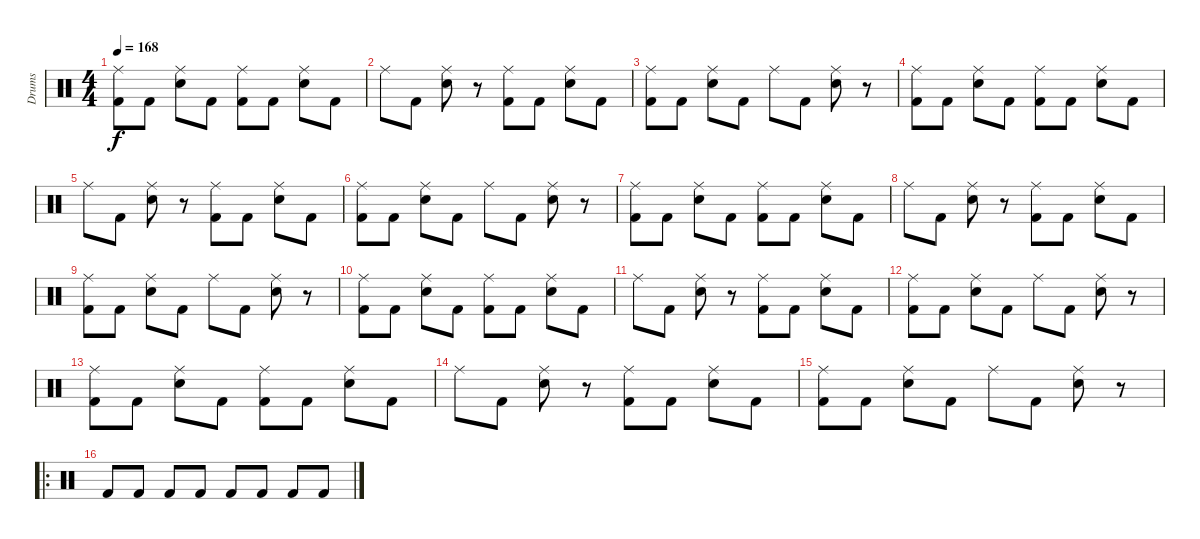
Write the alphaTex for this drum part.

\track ("Drums" "Drums") {instrument percussion}
\staff {score}
\articulation defaults
\ts (4 4)
\tempo 168
\clef neutral
\ks c
("Ride (middle)" "Kick (hit) 2").8{dy f} "Kick (hit) 2".8 ("Ride (middle)" "Snare (hit) 2").8 "Kick (hit) 2".8 ("Ride (middle)" "Kick (hit) 2").8 "Kick (hit) 2".8 ("Ride (middle)" "Snare (hit) 2").8 "Kick (hit) 2".8 |
"Ride (middle)".8 "Kick (hit) 2".8 ("Ride (middle)" "Snare (hit) 2").8 r.8 ("Ride (middle)" "Kick (hit) 2").8 "Kick (hit) 2".8 ("Ride (middle)" "Snare (hit) 2").8 "Kick (hit) 2".8 |
("Ride (middle)" "Kick (hit) 2").8 "Kick (hit) 2".8 ("Ride (middle)" "Snare (hit) 2").8 "Kick (hit) 2".8 "Ride (middle)".8 "Kick (hit) 2".8 ("Ride (middle)" "Snare (hit) 2").8 r.8 |
("Ride (middle)" "Kick (hit) 2").8 "Kick (hit) 2".8 ("Ride (middle)" "Snare (hit) 2").8 "Kick (hit) 2".8 ("Ride (middle)" "Kick (hit) 2").8 "Kick (hit) 2".8 ("Ride (middle)" "Snare (hit) 2").8 "Kick (hit) 2".8 |
"Ride (middle)".8 "Kick (hit) 2".8 ("Ride (middle)" "Snare (hit) 2").8 r.8 ("Ride (middle)" "Kick (hit) 2").8 "Kick (hit) 2".8 ("Ride (middle)" "Snare (hit) 2").8 "Kick (hit) 2".8 |
("Ride (middle)" "Kick (hit) 2").8 "Kick (hit) 2".8 ("Ride (middle)" "Snare (hit) 2").8 "Kick (hit) 2".8 "Ride (middle)".8 "Kick (hit) 2".8 ("Ride (middle)" "Snare (hit) 2").8 r.8 |
("Ride (middle)" "Kick (hit) 2").8 "Kick (hit) 2".8 ("Ride (middle)" "Snare (hit) 2").8 "Kick (hit) 2".8 ("Ride (middle)" "Kick (hit) 2").8 "Kick (hit) 2".8 ("Ride (middle)" "Snare (hit) 2").8 "Kick (hit) 2".8 |
"Ride (middle)".8 "Kick (hit) 2".8 ("Ride (middle)" "Snare (hit) 2").8 r.8 ("Ride (middle)" "Kick (hit) 2").8 "Kick (hit) 2".8 ("Ride (middle)" "Snare (hit) 2").8 "Kick (hit) 2".8 |
("Ride (middle)" "Kick (hit) 2").8 "Kick (hit) 2".8 ("Ride (middle)" "Snare (hit) 2").8 "Kick (hit) 2".8 "Ride (middle)".8 "Kick (hit) 2".8 ("Ride (middle)" "Snare (hit) 2").8 r.8 |
("Ride (middle)" "Kick (hit) 2").8 "Kick (hit) 2".8 ("Ride (middle)" "Snare (hit) 2").8 "Kick (hit) 2".8 ("Ride (middle)" "Kick (hit) 2").8 "Kick (hit) 2".8 ("Ride (middle)" "Snare (hit) 2").8 "Kick (hit) 2".8 |
"Ride (middle)".8 "Kick (hit) 2".8 ("Ride (middle)" "Snare (hit) 2").8 r.8 ("Ride (middle)" "Kick (hit) 2").8 "Kick (hit) 2".8 ("Ride (middle)" "Snare (hit) 2").8 "Kick (hit) 2".8 |
("Ride (middle)" "Kick (hit) 2").8 "Kick (hit) 2".8 ("Ride (middle)" "Snare (hit) 2").8 "Kick (hit) 2".8 "Ride (middle)".8 "Kick (hit) 2".8 ("Ride (middle)" "Snare (hit) 2").8 r.8 |
("Ride (middle)" "Kick (hit) 2").8 "Kick (hit) 2".8 ("Ride (middle)" "Snare (hit) 2").8 "Kick (hit) 2".8 ("Ride (middle)" "Kick (hit) 2").8 "Kick (hit) 2".8 ("Ride (middle)" "Snare (hit) 2").8 "Kick (hit) 2".8 |
"Ride (middle)".8 "Kick (hit) 2".8 ("Ride (middle)" "Snare (hit) 2").8 r.8 ("Ride (middle)" "Kick (hit) 2").8 "Kick (hit) 2".8 ("Ride (middle)" "Snare (hit) 2").8 "Kick (hit) 2".8 |
("Ride (middle)" "Kick (hit) 2").8 "Kick (hit) 2".8 ("Ride (middle)" "Snare (hit) 2").8 "Kick (hit) 2".8 "Ride (middle)".8 "Kick (hit) 2".8 ("Ride (middle)" "Snare (hit) 2").8 r.8 |
\ro "Kick (hit) 2".8 "Kick (hit) 2".8 "Kick (hit) 2".8 "Kick (hit) 2".8 "Kick (hit) 2".8 "Kick (hit) 2".8 "Kick (hit) 2".8 "Kick (hit) 2".8
